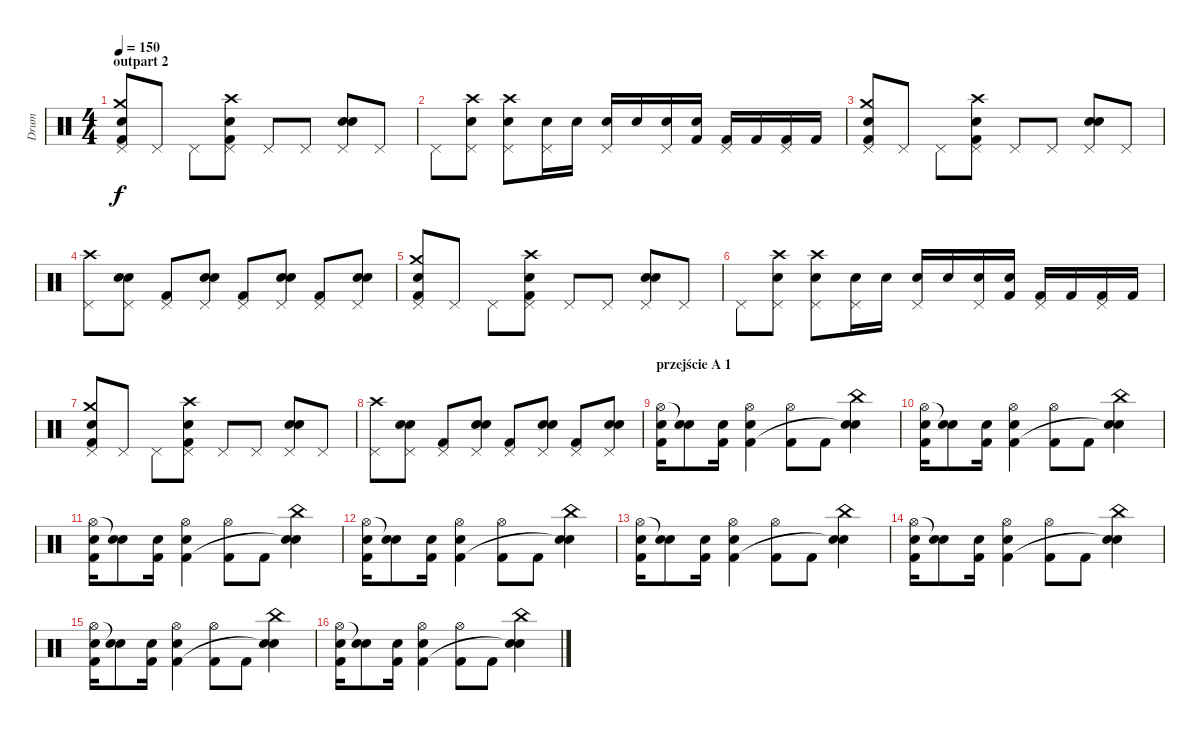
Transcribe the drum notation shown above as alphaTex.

\track ("Drum" "Drum") {instrument percussion}
\staff {score}
\articulation defaults
\ts (4 4)
\section ("" "outpart 2")
\tempo 150
\clef neutral
\ks c
("Electric Snare (hit)" "Crash medium (hit)" "Kick (hit) 2" "Pedal Hi-Hat (hit)").8{dy f} "Pedal Hi-Hat (hit)".8 "Pedal Hi-Hat (hit)".8 ("Electric Snare (hit)" "Crash high (hit)" "Kick (hit) 2" "Pedal Hi-Hat (hit)").8 "Pedal Hi-Hat (hit)".8 "Pedal Hi-Hat (hit)".8 ("Electric Snare (hit)" "Snare (hit) 2" "Pedal Hi-Hat (hit)").8 "Pedal Hi-Hat (hit)".8 |
"Pedal Hi-Hat (hit)".8 ("Electric Snare (hit)" "Crash high (hit)" "Pedal Hi-Hat (hit)").8 ("Electric Snare (hit)" "Crash high (hit)" "Pedal Hi-Hat (hit)").8 ("Electric Snare (hit)" "Pedal Hi-Hat (hit)").16 "Snare (hit) 2".16 ("Electric Snare (hit)" "Pedal Hi-Hat (hit)").16 "Snare (hit) 2".16 ("Electric Snare (hit)" "Pedal Hi-Hat (hit)").16 ("Snare (hit) 2" "Kick (hit) 2").16 ("Kick (hit) 2" "Pedal Hi-Hat (hit)").16 "Kick (hit) 2".16 ("Kick (hit) 2" "Pedal Hi-Hat (hit)").16 "Kick (hit) 2".16 |
("Electric Snare (hit)" "Crash medium (hit)" "Kick (hit) 2" "Pedal Hi-Hat (hit)").8 "Pedal Hi-Hat (hit)".8 "Pedal Hi-Hat (hit)".8 ("Electric Snare (hit)" "Crash high (hit)" "Kick (hit) 2" "Pedal Hi-Hat (hit)").8 "Pedal Hi-Hat (hit)".8 "Pedal Hi-Hat (hit)".8 ("Electric Snare (hit)" "Snare (hit) 2" "Pedal Hi-Hat (hit)").8 "Pedal Hi-Hat (hit)".8 |
("Crash high (hit)" "Pedal Hi-Hat (hit)").8 ("Electric Snare (hit)" "Snare (hit) 2" "Pedal Hi-Hat (hit)").8 ("Kick (hit) 2" "Pedal Hi-Hat (hit)").8 ("Electric Snare (hit)" "Snare (hit) 2" "Pedal Hi-Hat (hit)").8 ("Kick (hit) 2" "Pedal Hi-Hat (hit)").8 ("Electric Snare (hit)" "Snare (hit) 2" "Pedal Hi-Hat (hit)").8 ("Kick (hit) 2" "Pedal Hi-Hat (hit)").8 ("Electric Snare (hit)" "Snare (hit) 2" "Pedal Hi-Hat (hit)").8 |
("Electric Snare (hit)" "Crash medium (hit)" "Kick (hit) 2" "Pedal Hi-Hat (hit)").8 "Pedal Hi-Hat (hit)".8 "Pedal Hi-Hat (hit)".8 ("Electric Snare (hit)" "Crash high (hit)" "Kick (hit) 2" "Pedal Hi-Hat (hit)").8 "Pedal Hi-Hat (hit)".8 "Pedal Hi-Hat (hit)".8 ("Electric Snare (hit)" "Snare (hit) 2" "Pedal Hi-Hat (hit)").8 "Pedal Hi-Hat (hit)".8 |
"Pedal Hi-Hat (hit)".8 ("Electric Snare (hit)" "Crash high (hit)" "Pedal Hi-Hat (hit)").8 ("Electric Snare (hit)" "Crash high (hit)" "Pedal Hi-Hat (hit)").8 ("Electric Snare (hit)" "Pedal Hi-Hat (hit)").16 "Snare (hit) 2".16 ("Electric Snare (hit)" "Pedal Hi-Hat (hit)").16 "Snare (hit) 2".16 ("Electric Snare (hit)" "Pedal Hi-Hat (hit)").16 ("Snare (hit) 2" "Kick (hit) 2").16 ("Kick (hit) 2" "Pedal Hi-Hat (hit)").16 "Kick (hit) 2".16 ("Kick (hit) 2" "Pedal Hi-Hat (hit)").16 "Kick (hit) 2".16 |
("Electric Snare (hit)" "Crash medium (hit)" "Kick (hit) 2" "Pedal Hi-Hat (hit)").8 "Pedal Hi-Hat (hit)".8 "Pedal Hi-Hat (hit)".8 ("Electric Snare (hit)" "Crash high (hit)" "Kick (hit) 2" "Pedal Hi-Hat (hit)").8 "Pedal Hi-Hat (hit)".8 "Pedal Hi-Hat (hit)".8 ("Electric Snare (hit)" "Snare (hit) 2" "Pedal Hi-Hat (hit)").8 "Pedal Hi-Hat (hit)".8 |
("Crash high (hit)" "Pedal Hi-Hat (hit)").8 ("Electric Snare (hit)" "Snare (hit) 2" "Pedal Hi-Hat (hit)").8 ("Kick (hit) 2" "Pedal Hi-Hat (hit)").8 ("Electric Snare (hit)" "Snare (hit) 2" "Pedal Hi-Hat (hit)").8 ("Kick (hit) 2" "Pedal Hi-Hat (hit)").8 ("Electric Snare (hit)" "Snare (hit) 2" "Pedal Hi-Hat (hit)").8 ("Kick (hit) 2" "Pedal Hi-Hat (hit)").8 ("Electric Snare (hit)" "Snare (hit) 2" "Pedal Hi-Hat (hit)").8 |
\section ("" "przejście A 1")
("Snare (hit) 2" "Hi-Hat (open)" "Kick (hit) 2").16 ("Electric Snare (hit)" "Snare (hit)"{t}).8 ("Snare (hit) 2" "Kick (hit) 2").16 ("Electric Snare (hit)" "Hi-Hat (open)" "Kick (hit) 2").4 ("Hi-Hat (open)" "Kick (hit) 2").8 "Kick (hit) 2".8 ("China (hit)" "Electric Snare (hit)" "Snare (hit)"{t}).4 |
("Snare (hit) 2" "Hi-Hat (open)" "Kick (hit) 2").16 ("Electric Snare (hit)" "Snare (hit)"{t}).8 ("Snare (hit) 2" "Kick (hit) 2").16 ("Electric Snare (hit)" "Hi-Hat (open)" "Kick (hit) 2").4 ("Hi-Hat (open)" "Kick (hit) 2").8 "Kick (hit) 2".8 ("China (hit)" "Electric Snare (hit)" "Snare (hit)"{t}).4 |
("Snare (hit) 2" "Hi-Hat (open)" "Kick (hit) 2").16 ("Electric Snare (hit)" "Snare (hit)"{t}).8 ("Snare (hit) 2" "Kick (hit) 2").16 ("Electric Snare (hit)" "Hi-Hat (open)" "Kick (hit) 2").4 ("Hi-Hat (open)" "Kick (hit) 2").8 "Kick (hit) 2".8 ("China (hit)" "Electric Snare (hit)" "Snare (hit)"{t}).4 |
("Snare (hit) 2" "Hi-Hat (open)" "Kick (hit) 2").16 ("Electric Snare (hit)" "Snare (hit)"{t}).8 ("Snare (hit) 2" "Kick (hit) 2").16 ("Electric Snare (hit)" "Hi-Hat (open)" "Kick (hit) 2").4 ("Hi-Hat (open)" "Kick (hit) 2").8 "Kick (hit) 2".8 ("China (hit)" "Electric Snare (hit)" "Snare (hit)"{t}).4 |
("Snare (hit) 2" "Hi-Hat (open)" "Kick (hit) 2").16 ("Electric Snare (hit)" "Snare (hit)"{t}).8 ("Snare (hit) 2" "Kick (hit) 2").16 ("Electric Snare (hit)" "Hi-Hat (open)" "Kick (hit) 2").4 ("Hi-Hat (open)" "Kick (hit) 2").8 "Kick (hit) 2".8 ("China (hit)" "Electric Snare (hit)" "Snare (hit)"{t}).4 |
("Snare (hit) 2" "Hi-Hat (open)" "Kick (hit) 2").16 ("Electric Snare (hit)" "Snare (hit)"{t}).8 ("Snare (hit) 2" "Kick (hit) 2").16 ("Electric Snare (hit)" "Hi-Hat (open)" "Kick (hit) 2").4 ("Hi-Hat (open)" "Kick (hit) 2").8 "Kick (hit) 2".8 ("China (hit)" "Electric Snare (hit)" "Snare (hit)"{t}).4 |
("Snare (hit) 2" "Hi-Hat (open)" "Kick (hit) 2").16 ("Electric Snare (hit)" "Snare (hit)"{t}).8 ("Snare (hit) 2" "Kick (hit) 2").16 ("Electric Snare (hit)" "Hi-Hat (open)" "Kick (hit) 2").4 ("Hi-Hat (open)" "Kick (hit) 2").8 "Kick (hit) 2".8 ("China (hit)" "Electric Snare (hit)" "Snare (hit)"{t}).4 |
("Snare (hit) 2" "Hi-Hat (open)" "Kick (hit) 2").16 ("Electric Snare (hit)" "Snare (hit)"{t}).8 ("Snare (hit) 2" "Kick (hit) 2").16 ("Electric Snare (hit)" "Hi-Hat (open)" "Kick (hit) 2").4 ("Hi-Hat (open)" "Kick (hit) 2").8 "Kick (hit) 2".8 ("China (hit)" "Electric Snare (hit)" "Snare (hit)"{t}).4
